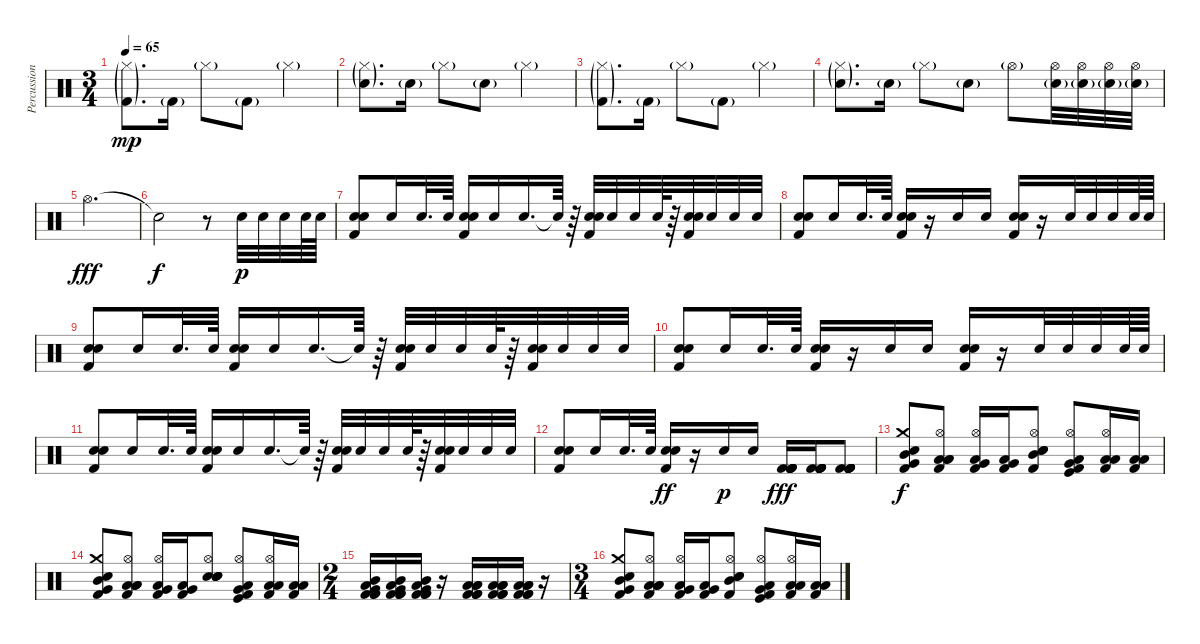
\track ("Percussion" "Percussion") {instrument percussion}
\staff {score}
\articulation defaults
\ts (3 4)
\tempo 65
\clef neutral
\ks c
("Hi-Hat (closed)"{g} "Kick (hit) 2"{g}).8{d dy mp} "Kick (hit) 2"{g}.16 "Hi-Hat (closed)"{g}.8 "Kick (hit) 2"{g}.8 "Hi-Hat (closed)"{g}.4 |
("Hi-Hat (closed)"{g} "Snare (hit) 2"{g}).8{d} "Snare (hit) 2"{g}.16 "Hi-Hat (closed)"{g}.8 "Snare (hit) 2"{g}.8 "Hi-Hat (closed)"{g}.4 |
("Hi-Hat (closed)"{g} "Kick (hit) 2"{g}).8{d} "Kick (hit) 2"{g}.16 "Hi-Hat (closed)"{g}.8 "Kick (hit) 2"{g}.8 "Hi-Hat (closed)"{g}.4 |
("Hi-Hat (closed)"{g} "Snare (hit) 2"{g}).8{d} "Snare (hit) 2"{g}.16 "Hi-Hat (closed)"{g}.8 "Snare (hit) 2"{g}.8 "Hi-Hat (open)"{g}.8 ("Hi-Hat (open)" "Electric Snare (hit)"{g}).32 ("Hi-Hat (open)" "Electric Snare (hit)"{g}).32 ("Hi-Hat (open)" "Electric Snare (hit)"{g}).32 ("Hi-Hat (open)" "Electric Snare (hit)"{g}).32 |
"Hi-Hat (open)".2{d dy fff} |
"Snare (hit)"{t}.2{dy f} r.8 "Electric Snare (hit)".32{dy p} "Electric Snare (hit)".32 "Electric Snare (hit)".32 "Electric Snare (hit)".64 "Electric Snare (hit)".64 |
("Snare (hit) 2" "Electric Snare (hit)" "Kick (hit) 2").8 "Electric Snare (hit)".16 "Electric Snare (hit)".32{d} "Electric Snare (hit)".64 ("Snare (hit) 2" "Kick (hit) 2" "Electric Snare (hit)").16 "Electric Snare (hit)".16 "Electric Snare (hit)".16{d} "Snare (hit)"{t}.64 r.64 ("Snare (hit) 2" "Kick (hit) 2" "Electric Snare (hit)").32 "Electric Snare (hit)".32 "Electric Snare (hit)".32 "Electric Snare (hit)".64 r.64 ("Snare (hit) 2" "Kick (hit) 2" "Electric Snare (hit)").32 "Electric Snare (hit)".32 "Electric Snare (hit)".32 "Electric Snare (hit)".32 |
("Snare (hit) 2" "Electric Snare (hit)" "Kick (hit) 2").8 "Electric Snare (hit)".16 "Electric Snare (hit)".32{d} "Electric Snare (hit)".64 ("Snare (hit) 2" "Kick (hit) 2" "Electric Snare (hit)").16 r.16 "Electric Snare (hit)".16 "Electric Snare (hit)".16 ("Snare (hit) 2" "Kick (hit) 2" "Electric Snare (hit)").16 r.16 "Electric Snare (hit)".32 "Electric Snare (hit)".32 "Electric Snare (hit)".32 "Electric Snare (hit)".64 "Electric Snare (hit)".64 |
("Snare (hit) 2" "Electric Snare (hit)" "Kick (hit) 2").8 "Electric Snare (hit)".16 "Electric Snare (hit)".32{d} "Electric Snare (hit)".64 ("Snare (hit) 2" "Kick (hit) 2" "Electric Snare (hit)").16 "Electric Snare (hit)".16 "Electric Snare (hit)".16{d} "Snare (hit)"{t}.64 r.64 ("Snare (hit) 2" "Kick (hit) 2" "Electric Snare (hit)").32 "Electric Snare (hit)".32 "Electric Snare (hit)".32 "Electric Snare (hit)".64 r.64 ("Snare (hit) 2" "Kick (hit) 2" "Electric Snare (hit)").32 "Electric Snare (hit)".32 "Electric Snare (hit)".32 "Electric Snare (hit)".32 |
("Snare (hit) 2" "Electric Snare (hit)" "Kick (hit) 2").8 "Electric Snare (hit)".16 "Electric Snare (hit)".32{d} "Electric Snare (hit)".64 ("Snare (hit) 2" "Kick (hit) 2" "Electric Snare (hit)").16 r.16 "Electric Snare (hit)".16 "Electric Snare (hit)".16 ("Snare (hit) 2" "Kick (hit) 2" "Electric Snare (hit)").16 r.16 "Electric Snare (hit)".32 "Electric Snare (hit)".32 "Electric Snare (hit)".32 "Electric Snare (hit)".64 "Electric Snare (hit)".64 |
("Snare (hit) 2" "Electric Snare (hit)" "Kick (hit) 2").8 "Electric Snare (hit)".16 "Electric Snare (hit)".32{d} "Electric Snare (hit)".64 ("Snare (hit) 2" "Kick (hit) 2" "Electric Snare (hit)").16 "Electric Snare (hit)".16 "Electric Snare (hit)".16{d} "Snare (hit)"{t}.64 r.64 ("Snare (hit) 2" "Kick (hit) 2" "Electric Snare (hit)").32 "Electric Snare (hit)".32 "Electric Snare (hit)".32 "Electric Snare (hit)".64 r.64 ("Snare (hit) 2" "Kick (hit) 2" "Electric Snare (hit)").32 "Electric Snare (hit)".32 "Electric Snare (hit)".32 "Electric Snare (hit)".32 |
("Snare (hit) 2" "Electric Snare (hit)" "Kick (hit) 2").8 "Electric Snare (hit)".16 "Electric Snare (hit)".32{d} "Electric Snare (hit)".64 ("Snare (hit) 2" "Kick (hit) 2" "Electric Snare (hit)").16{dy ff} r.16 "Electric Snare (hit)".16{dy p} "Electric Snare (hit)".16 ("Kick (hit) 2" "Kick (hit) 2" "Kick (hit) 2" "Kick (hit) 2" "Kick (hit) 2" "Kick (hit) 2").16{dy fff} ("Kick (hit) 2" "Kick (hit) 2" "Kick (hit) 2" "Kick (hit) 2" "Kick (hit) 2" "Kick (hit) 2").16 ("Kick (hit) 2" "Kick (hit) 2" "Kick (hit) 2" "Kick (hit) 2" "Kick (hit) 2" "Kick (hit) 2").8 |
("Crash medium (hit)" "Mid Tom (hit)" "Very Low Tom (hit)" "Snare (hit) 2" "Kick (hit) 2").8{dy f} ("Hi-Hat (open)" "Low Tom (hit)" "Low Tom (hit)" "Low Tom (hit)" "Kick (hit) 2").8 ("Hi-Hat (open)" "Very Low Tom (hit)" "Low Floor Tom (hit)" "Kick (hit) 2").16 ("Very Low Tom (hit)" "Low Floor Tom (hit)" "Kick (hit) 2").16 ("Hi-Hat (open)" "Mid Tom (hit)" "Electric Snare (hit)" "Snare (hit) 2" "Kick (hit) 2").8 ("Hi-Hat (open)" "Very Low Tom (hit)" "Low Tom (hit)" "Kick (hit)" "Kick (hit) 2").8 ("Hi-Hat (open)" "Low Floor Tom (hit)" "Low Floor Tom (hit)" "Kick (hit) 2").16 ("Low Floor Tom (hit)" "Low Floor Tom (hit)" "Kick (hit) 2").16 |
("Crash medium (hit)" "Mid Tom (hit)" "Very Low Tom (hit)" "Snare (hit) 2" "Kick (hit) 2").8 ("Hi-Hat (open)" "Low Tom (hit)" "Low Tom (hit)" "Low Tom (hit)" "Kick (hit) 2").8 ("Hi-Hat (open)" "Very Low Tom (hit)" "Low Floor Tom (hit)" "Kick (hit) 2").16 ("Very Low Tom (hit)" "Low Floor Tom (hit)" "Kick (hit) 2").16 ("Hi-Hat (open)" "Electric Snare (hit)" "Electric Snare (hit)" "Snare (hit) 2" "Snare (hit) 2").8 ("Hi-Hat (open)" "Very Low Tom (hit)" "Low Floor Tom (hit)" "Kick (hit)" "Kick (hit) 2").8 ("Hi-Hat (open)" "Low Floor Tom (hit)" "Low Floor Tom (hit)" "Kick (hit) 2").16 ("Low Floor Tom (hit)" "Low Floor Tom (hit)" "Kick (hit) 2").16 |
\ts (2 4)
("Mid Tom (hit)" "Low Floor Tom (hit)" "Very Low Tom (hit)" "Kick (hit) 2" "Kick (hit) 2" "Kick (hit) 2").16 ("Mid Tom (hit)" "Low Floor Tom (hit)" "Very Low Tom (hit)" "Kick (hit) 2" "Kick (hit) 2" "Kick (hit) 2").16 ("Mid Tom (hit)" "Low Floor Tom (hit)" "Very Low Tom (hit)" "Kick (hit) 2" "Kick (hit) 2" "Kick (hit) 2").16 r.16 ("Low Tom (hit)" "Low Floor Tom (hit)" "Low Floor Tom (hit)" "Kick (hit) 2" "Kick (hit) 2" "Kick (hit) 2").16 ("Low Tom (hit)" "Low Floor Tom (hit)" "Low Floor Tom (hit)" "Kick (hit) 2" "Kick (hit) 2" "Kick (hit) 2").16 ("Low Tom (hit)" "Low Floor Tom (hit)" "Low Floor Tom (hit)" "Kick (hit) 2" "Kick (hit) 2" "Kick (hit) 2").16 r.16 |
\ts (3 4)
("Crash medium (hit)" "Mid Tom (hit)" "Very Low Tom (hit)" "Snare (hit) 2" "Kick (hit) 2").8 ("Hi-Hat (open)" "Low Tom (hit)" "Low Tom (hit)" "Low Tom (hit)" "Kick (hit) 2").8 ("Hi-Hat (open)" "Very Low Tom (hit)" "Low Floor Tom (hit)" "Kick (hit) 2").16 ("Very Low Tom (hit)" "Low Floor Tom (hit)" "Kick (hit) 2").16 ("Hi-Hat (open)" "Mid Tom (hit)" "Electric Snare (hit)" "Snare (hit) 2" "Kick (hit) 2").8 ("Hi-Hat (open)" "Very Low Tom (hit)" "Low Tom (hit)" "Kick (hit)" "Kick (hit) 2").8 ("Hi-Hat (open)" "Low Floor Tom (hit)" "Low Floor Tom (hit)" "Kick (hit) 2").16 ("Low Floor Tom (hit)" "Low Floor Tom (hit)" "Kick (hit) 2").16
